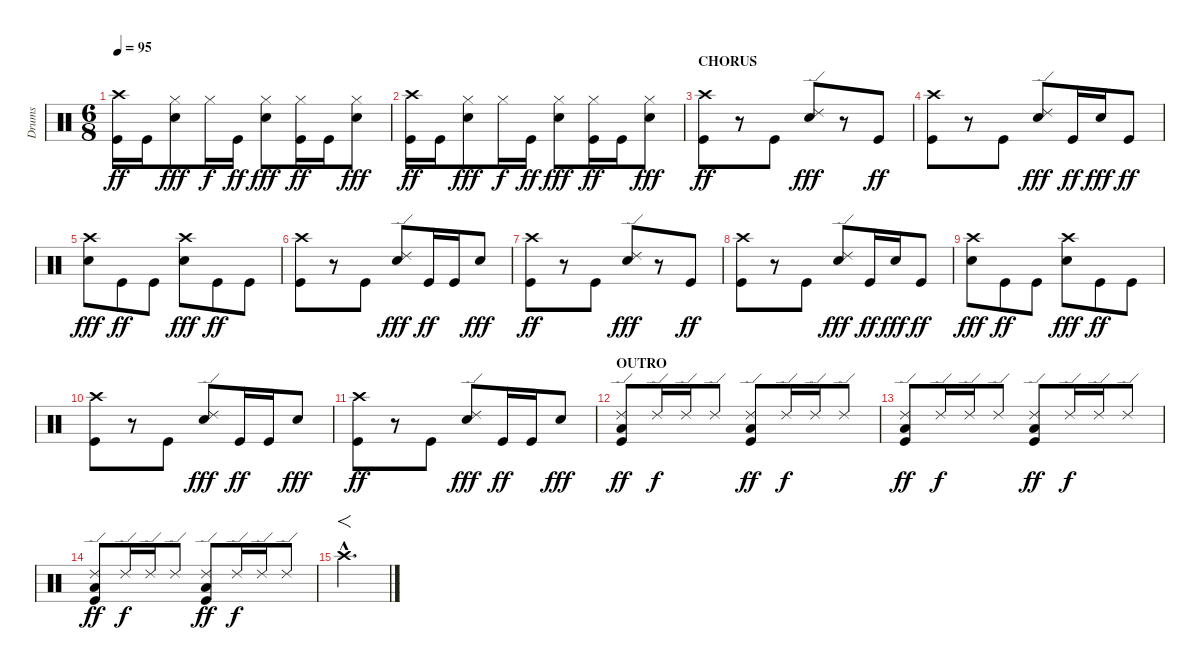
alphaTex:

\track ("Drums" "Drums") {instrument percussion}
\staff {score}
\articulation defaults
\ts (6 8)
\tempo 95
\clef neutral
\ks c
("Crash high (hit)" "Kick (hit)").16{dy ff} "Kick (hit)".16 ("Hi-Hat (closed)" "Electric Snare (hit)").8{dy fff} "Hi-Hat (closed)".16{dy f} "Kick (hit)".16{dy ff} ("Hi-Hat (closed)" "Electric Snare (hit)").8{dy fff} ("Hi-Hat (closed)" "Kick (hit)").16{dy ff} "Kick (hit)".16 ("Hi-Hat (closed)" "Electric Snare (hit)").8{dy fff} |
("Crash high (hit)" "Kick (hit)").16{dy ff} "Kick (hit)".16 ("Hi-Hat (closed)" "Electric Snare (hit)").8{dy fff} "Hi-Hat (closed)".16{dy f} "Kick (hit)".16{dy ff} ("Hi-Hat (closed)" "Electric Snare (hit)").8{dy fff} ("Hi-Hat (closed)" "Kick (hit)").16{dy ff} "Kick (hit)".16 ("Hi-Hat (closed)" "Electric Snare (hit)").8{dy fff} |
\section ("" "CHORUS")
("Crash high (hit)" "Kick (hit)").8{dy ff} r.8 "Kick (hit)".8 ("Ride (edge) 2" "Electric Snare (hit)").8{dy fff} r.8 "Kick (hit)".8{dy ff} |
("Crash high (hit)" "Kick (hit)").8 r.8 "Kick (hit)".8 ("Ride (edge) 2" "Electric Snare (hit)").8{dy fff} "Kick (hit)".16{dy ff} "Electric Snare (hit)".16{dy fff} "Kick (hit)".8{dy ff} |
("Crash high (hit)" "Electric Snare (hit)").8{dy fff} "Kick (hit)".8{dy ff} "Kick (hit)".8 ("Crash high (hit)" "Electric Snare (hit)").8{dy fff} "Kick (hit)".8{dy ff} "Kick (hit)".8 |
("Crash high (hit)" "Kick (hit)").8 r.8 "Kick (hit)".8 ("Ride (edge) 2" "Electric Snare (hit)").8{dy fff} "Kick (hit)".16{dy ff} "Kick (hit)".16 "Electric Snare (hit)".8{dy fff} |
("Crash high (hit)" "Kick (hit)").8{dy ff} r.8 "Kick (hit)".8 ("Ride (edge) 2" "Electric Snare (hit)").8{dy fff} r.8 "Kick (hit)".8{dy ff} |
("Crash high (hit)" "Kick (hit)").8 r.8 "Kick (hit)".8 ("Ride (edge) 2" "Electric Snare (hit)").8{dy fff} "Kick (hit)".16{dy ff} "Electric Snare (hit)".16{dy fff} "Kick (hit)".8{dy ff} |
("Crash high (hit)" "Electric Snare (hit)").8{dy fff} "Kick (hit)".8{dy ff} "Kick (hit)".8 ("Crash high (hit)" "Electric Snare (hit)").8{dy fff} "Kick (hit)".8{dy ff} "Kick (hit)".8 |
("Crash high (hit)" "Kick (hit)").8 r.8 "Kick (hit)".8 ("Ride (edge) 2" "Electric Snare (hit)").8{dy fff} "Kick (hit)".16{dy ff} "Kick (hit)".16 "Electric Snare (hit)".8{dy fff} |
("Crash high (hit)" "Kick (hit)").8{dy ff} r.8 "Kick (hit)".8 ("Ride (edge) 2" "Electric Snare (hit)").8{dy fff} "Kick (hit)".16{dy ff} "Kick (hit)".16 "Electric Snare (hit)".8{dy fff} |
\section ("" "OUTRO")
("Ride (edge) 2" "Low Tom (hit)" "Kick (hit)").8{dy ff} "Ride (edge) 2".16{dy f} "Ride (edge) 2".16 "Ride (edge) 2".8 ("Ride (edge) 2" "Low Tom (hit)" "Kick (hit)").8{dy ff} "Ride (edge) 2".16{dy f} "Ride (edge) 2".16 "Ride (edge) 2".8 |
("Ride (edge) 2" "Low Tom (hit)" "Kick (hit)").8{dy ff} "Ride (edge) 2".16{dy f} "Ride (edge) 2".16 "Ride (edge) 2".8 ("Ride (edge) 2" "Low Tom (hit)" "Kick (hit)").8{dy ff} "Ride (edge) 2".16{dy f} "Ride (edge) 2".16 "Ride (edge) 2".8 |
("Ride (edge) 2" "Low Tom (hit)" "Kick (hit)").8{dy ff} "Ride (edge) 2".16{dy f} "Ride (edge) 2".16 "Ride (edge) 2".8 ("Ride (edge) 2" "Low Tom (hit)" "Kick (hit)").8{dy ff} "Ride (edge) 2".16{dy f} "Ride (edge) 2".16 "Ride (edge) 2".8 |
"Crash high (hit)"{hac}.2{f d}
